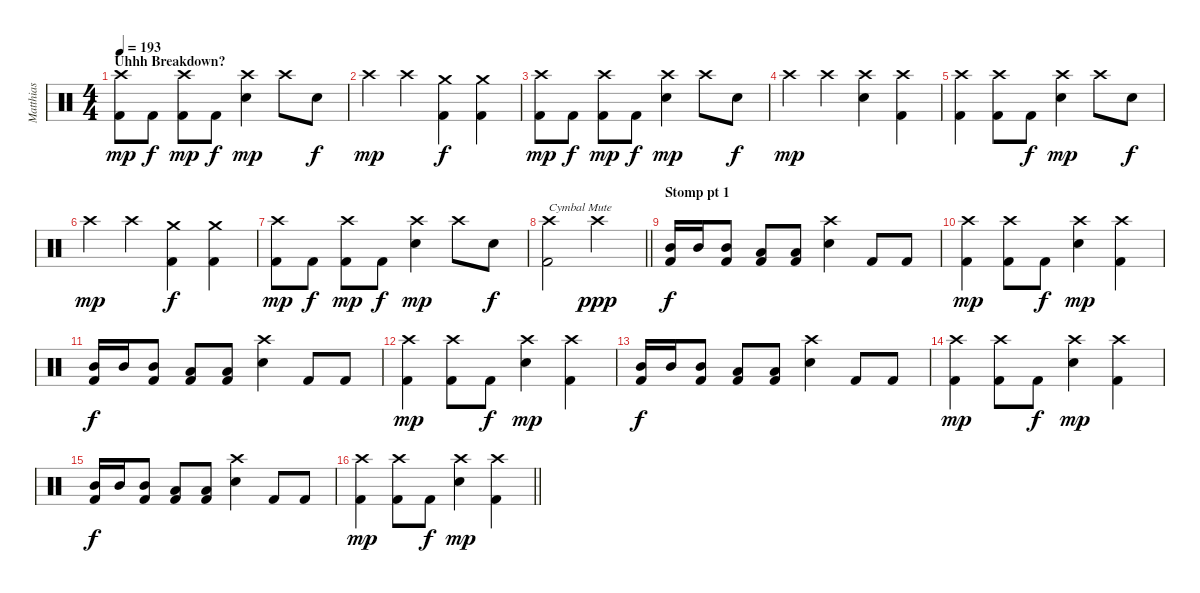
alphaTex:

\track ("Matthias" "Matthias") {instrument percussion}
\staff {score}
\articulation defaults
\ts (4 4)
\section ("" "Uhhh Breakdown?")
\tempo 193
\clef neutral
\ks c
("Crash high (hit)" "Kick (hit) 2").8{dy mp} "Kick (hit) 2".8{dy f} ("Crash high (hit)" "Kick (hit) 2").8{dy mp} "Kick (hit) 2".8{dy f} ("Crash high (hit)" "Electric Snare (hit)").4{dy mp} "Crash high (hit)".8 "Electric Snare (hit)".8{dy f} |
"Crash high (hit)".4{dy mp} "Crash high (hit)".4 ("Crash medium (hit)" "Kick (hit) 2").4{dy f} ("Crash medium (hit)" "Kick (hit) 2").4 |
("Crash high (hit)" "Kick (hit) 2").8{dy mp} "Kick (hit) 2".8{dy f} ("Crash high (hit)" "Kick (hit) 2").8{dy mp} "Kick (hit) 2".8{dy f} ("Crash high (hit)" "Electric Snare (hit)").4{dy mp} "Crash high (hit)".8 "Electric Snare (hit)".8{dy f} |
"Crash high (hit)".4{dy mp} "Crash high (hit)".4 ("Crash high (hit)" "Electric Snare (hit)").4 ("Crash high (hit)" "Kick (hit) 2").4 |
("Crash high (hit)" "Kick (hit) 2").4 ("Crash high (hit)" "Kick (hit) 2").8 "Kick (hit) 2".8{dy f} ("Crash high (hit)" "Electric Snare (hit)").4{dy mp} "Crash high (hit)".8 "Electric Snare (hit)".8{dy f} |
"Crash high (hit)".4{dy mp} "Crash high (hit)".4 ("Crash medium (hit)" "Kick (hit) 2").4{dy f} ("Crash medium (hit)" "Kick (hit) 2").4 |
("Crash high (hit)" "Kick (hit) 2").8{dy mp} "Kick (hit) 2".8{dy f} ("Crash high (hit)" "Kick (hit) 2").8{dy mp} "Kick (hit) 2".8{dy f} ("Crash high (hit)" "Electric Snare (hit)").4{dy mp} "Crash high (hit)".8 "Electric Snare (hit)".8{dy f} |
\barLineRight lightlight
("Crash high (hit)" "Kick (hit) 2").2{txt "Cymbal Mute"} "Crash high (hit)".2{dy ppp} |
\section ("" "Stomp pt 1")
("Mid Tom (hit)" "Kick (hit) 2").16{dy f} "Mid Tom (hit)".16 ("Mid Tom (hit)" "Kick (hit) 2").8 ("Low Tom (hit)" "Kick (hit) 2").8 ("Low Tom (hit)" "Kick (hit) 2").8 ("Crash high (hit)" "Electric Snare (hit)").4 "Kick (hit) 2".8 "Kick (hit) 2".8 |
("Crash high (hit)" "Kick (hit) 2").4{dy mp} ("Crash high (hit)" "Kick (hit) 2").8 "Kick (hit) 2".8{dy f} ("Crash high (hit)" "Electric Snare (hit)").4{dy mp} ("Crash high (hit)" "Kick (hit) 2").4 |
("Mid Tom (hit)" "Kick (hit) 2").16{dy f} "Mid Tom (hit)".16 ("Mid Tom (hit)" "Kick (hit) 2").8 ("Low Tom (hit)" "Kick (hit) 2").8 ("Low Tom (hit)" "Kick (hit) 2").8 ("Crash high (hit)" "Electric Snare (hit)").4 "Kick (hit) 2".8 "Kick (hit) 2".8 |
("Crash high (hit)" "Kick (hit) 2").4{dy mp} ("Crash high (hit)" "Kick (hit) 2").8 "Kick (hit) 2".8{dy f} ("Crash high (hit)" "Electric Snare (hit)").4{dy mp} ("Crash high (hit)" "Kick (hit) 2").4 |
("Mid Tom (hit)" "Kick (hit) 2").16{dy f} "Mid Tom (hit)".16 ("Mid Tom (hit)" "Kick (hit) 2").8 ("Low Tom (hit)" "Kick (hit) 2").8 ("Low Tom (hit)" "Kick (hit) 2").8 ("Crash high (hit)" "Electric Snare (hit)").4 "Kick (hit) 2".8 "Kick (hit) 2".8 |
("Crash high (hit)" "Kick (hit) 2").4{dy mp} ("Crash high (hit)" "Kick (hit) 2").8 "Kick (hit) 2".8{dy f} ("Crash high (hit)" "Electric Snare (hit)").4{dy mp} ("Crash high (hit)" "Kick (hit) 2").4 |
("Mid Tom (hit)" "Kick (hit) 2").16{dy f} "Mid Tom (hit)".16 ("Mid Tom (hit)" "Kick (hit) 2").8 ("Low Tom (hit)" "Kick (hit) 2").8 ("Low Tom (hit)" "Kick (hit) 2").8 ("Crash high (hit)" "Electric Snare (hit)").4 "Kick (hit) 2".8 "Kick (hit) 2".8 |
\barLineRight lightlight
("Crash high (hit)" "Kick (hit) 2").4{dy mp} ("Crash high (hit)" "Kick (hit) 2").8 "Kick (hit) 2".8{dy f} ("Crash high (hit)" "Electric Snare (hit)").4{dy mp} ("Crash high (hit)" "Kick (hit) 2").4
